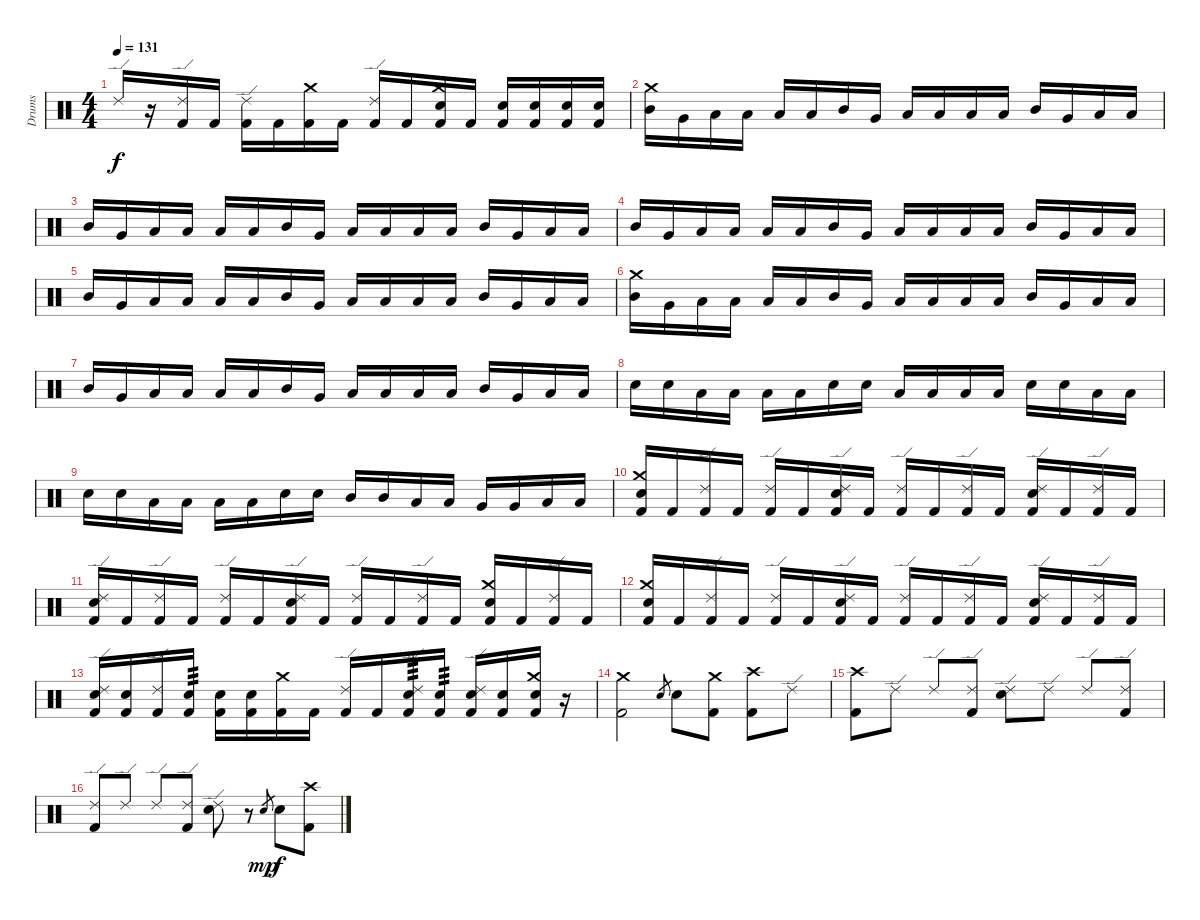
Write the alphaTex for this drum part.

\track ("Drums" "Drums") {instrument percussion}
\staff {score}
\articulation defaults
\ts (4 4)
\tempo 131
\clef neutral
\ks c "Ride (edge) 2".16{dy f}
r.16 ("Ride (edge) 2" "Kick (hit) 2").16 "Kick (hit) 2".16 ("Ride (edge) 2" "Kick (hit) 2").16 "Kick (hit) 2".16 ("Crash medium (hit)" "Kick (hit) 2").16 "Kick (hit) 2".16 ("Ride (edge) 2" "Kick (hit) 2").16 "Kick (hit) 2".16 ("Crash medium (hit)" "Electric Snare (hit)" "Kick (hit) 2").16 "Kick (hit) 2".16 ("Electric Snare (hit)" "Kick (hit) 2").16 ("Electric Snare (hit)" "Kick (hit) 2").16 ("Electric Snare (hit)" "Kick (hit) 2").16 ("Electric Snare (hit)" "Kick (hit) 2").16 |
("Crash medium (hit)" "Mid Tom (hit)").16 "Very Low Tom (hit)".16 "Low Floor Tom (hit)".16 "Low Floor Tom (hit)".16 "Low Floor Tom (hit)".16 "Low Floor Tom (hit)".16 "Mid Tom (hit)".16 "Very Low Tom (hit)".16 "Low Floor Tom (hit)".16 "Low Floor Tom (hit)".16 "Low Floor Tom (hit)".16 "Low Floor Tom (hit)".16 "Mid Tom (hit)".16 "Very Low Tom (hit)".16 "Low Floor Tom (hit)".16 "Low Floor Tom (hit)".16 |
"Mid Tom (hit)".16 "Very Low Tom (hit)".16 "Low Floor Tom (hit)".16 "Low Floor Tom (hit)".16 "Low Floor Tom (hit)".16 "Low Floor Tom (hit)".16 "Mid Tom (hit)".16 "Very Low Tom (hit)".16 "Low Floor Tom (hit)".16 "Low Floor Tom (hit)".16 "Low Floor Tom (hit)".16 "Low Floor Tom (hit)".16 "Mid Tom (hit)".16 "Very Low Tom (hit)".16 "Low Floor Tom (hit)".16 "Low Floor Tom (hit)".16 |
"Mid Tom (hit)".16 "Very Low Tom (hit)".16 "Low Floor Tom (hit)".16 "Low Floor Tom (hit)".16 "Low Floor Tom (hit)".16 "Low Floor Tom (hit)".16 "Mid Tom (hit)".16 "Very Low Tom (hit)".16 "Low Floor Tom (hit)".16 "Low Floor Tom (hit)".16 "Low Floor Tom (hit)".16 "Low Floor Tom (hit)".16 "Mid Tom (hit)".16 "Very Low Tom (hit)".16 "Low Floor Tom (hit)".16 "Low Floor Tom (hit)".16 |
"Mid Tom (hit)".16 "Very Low Tom (hit)".16 "Low Floor Tom (hit)".16 "Low Floor Tom (hit)".16 "Low Floor Tom (hit)".16 "Low Floor Tom (hit)".16 "Mid Tom (hit)".16 "Very Low Tom (hit)".16 "Low Floor Tom (hit)".16 "Low Floor Tom (hit)".16 "Low Floor Tom (hit)".16 "Low Floor Tom (hit)".16 "Mid Tom (hit)".16 "Very Low Tom (hit)".16 "Low Floor Tom (hit)".16 "Low Floor Tom (hit)".16 |
("Crash medium (hit)" "Mid Tom (hit)").16 "Very Low Tom (hit)".16 "Low Floor Tom (hit)".16 "Low Floor Tom (hit)".16 "Low Floor Tom (hit)".16 "Low Floor Tom (hit)".16 "Mid Tom (hit)".16 "Very Low Tom (hit)".16 "Low Floor Tom (hit)".16 "Low Floor Tom (hit)".16 "Low Floor Tom (hit)".16 "Low Floor Tom (hit)".16 "Mid Tom (hit)".16 "Very Low Tom (hit)".16 "Low Floor Tom (hit)".16 "Low Floor Tom (hit)".16 |
"Mid Tom (hit)".16 "Very Low Tom (hit)".16 "Low Floor Tom (hit)".16 "Low Floor Tom (hit)".16 "Low Floor Tom (hit)".16 "Low Floor Tom (hit)".16 "Mid Tom (hit)".16 "Very Low Tom (hit)".16 "Low Floor Tom (hit)".16 "Low Floor Tom (hit)".16 "Low Floor Tom (hit)".16 "Low Floor Tom (hit)".16 "Mid Tom (hit)".16 "Very Low Tom (hit)".16 "Low Floor Tom (hit)".16 "Low Floor Tom (hit)".16 |
"Electric Snare (hit)".16 "Electric Snare (hit)".16 "Low Floor Tom (hit)".16 "Low Floor Tom (hit)".16 "Low Floor Tom (hit)".16 "Low Floor Tom (hit)".16 "Electric Snare (hit)".16 "Electric Snare (hit)".16 "Low Floor Tom (hit)".16 "Low Floor Tom (hit)".16 "Low Floor Tom (hit)".16 "Low Floor Tom (hit)".16 "Electric Snare (hit)".16 "Electric Snare (hit)".16 "Low Floor Tom (hit)".16 "Low Floor Tom (hit)".16 |
"Electric Snare (hit)".16 "Electric Snare (hit)".16 "Low Floor Tom (hit)".16 "Low Floor Tom (hit)".16 "Low Floor Tom (hit)".16 "Low Floor Tom (hit)".16 "Electric Snare (hit)".16 "Electric Snare (hit)".16 "Mid Tom (hit)".16 "Mid Tom (hit)".16 "Low Tom (hit)".16 "Low Tom (hit)".16 "Very Low Tom (hit)".16 "Very Low Tom (hit)".16 "Low Floor Tom (hit)".16 "Low Floor Tom (hit)".16 |
("Crash medium (hit)" "Electric Snare (hit)" "Kick (hit) 2").16 "Kick (hit) 2".16 ("Ride (edge) 2" "Kick (hit) 2").16 "Kick (hit) 2".16 ("Ride (edge) 2" "Kick (hit) 2").16 "Kick (hit) 2".16 ("Ride (edge) 2" "Electric Snare (hit)" "Kick (hit) 2").16 "Kick (hit) 2".16 ("Ride (edge) 2" "Kick (hit) 2").16 "Kick (hit) 2".16 ("Ride (edge) 2" "Kick (hit) 2").16 "Kick (hit) 2".16 ("Ride (edge) 2" "Electric Snare (hit)" "Kick (hit) 2").16 "Kick (hit) 2".16 ("Ride (edge) 2" "Kick (hit) 2").16 "Kick (hit) 2".16 |
("Ride (edge) 2" "Electric Snare (hit)" "Kick (hit) 2").16 "Kick (hit) 2".16 ("Ride (edge) 2" "Kick (hit) 2").16 "Kick (hit) 2".16 ("Ride (edge) 2" "Kick (hit) 2").16 "Kick (hit) 2".16 ("Ride (edge) 2" "Electric Snare (hit)" "Kick (hit) 2").16 "Kick (hit) 2".16 ("Ride (edge) 2" "Kick (hit) 2").16 "Kick (hit) 2".16 ("Ride (edge) 2" "Kick (hit) 2").16 "Kick (hit) 2".16 ("Crash medium (hit)" "Electric Snare (hit)" "Kick (hit) 2").16 "Kick (hit) 2".16 ("Ride (edge) 2" "Kick (hit) 2").16 "Kick (hit) 2".16 |
("Crash medium (hit)" "Electric Snare (hit)" "Kick (hit) 2").16 "Kick (hit) 2".16 ("Ride (edge) 2" "Kick (hit) 2").16 "Kick (hit) 2".16 ("Ride (edge) 2" "Kick (hit) 2").16 "Kick (hit) 2".16 ("Ride (edge) 2" "Electric Snare (hit)" "Kick (hit) 2").16 "Kick (hit) 2".16 ("Ride (edge) 2" "Kick (hit) 2").16 "Kick (hit) 2".16 ("Ride (edge) 2" "Kick (hit) 2").16 "Kick (hit) 2".16 ("Ride (edge) 2" "Electric Snare (hit)" "Kick (hit) 2").16 "Kick (hit) 2".16 ("Ride (edge) 2" "Kick (hit) 2").16 "Kick (hit) 2".16 |
("Ride (edge) 2" "Electric Snare (hit)" "Kick (hit) 2").16 ("Electric Snare (hit)" "Kick (hit) 2").16 ("Ride (edge) 2" "Kick (hit) 2").16 ("Electric Snare (hit)" "Kick (hit) 2").16{tp 3} ("Electric Snare (hit)" "Kick (hit) 2").16 ("Electric Snare (hit)" "Kick (hit) 2").16 ("Crash medium (hit)" "Kick (hit) 2").16 "Kick (hit) 2".16 ("Ride (edge) 2" "Kick (hit) 2").16 "Kick (hit) 2".16 ("Ride (edge) 2" "Electric Snare (hit)" "Kick (hit) 2").16{tp 3} ("Electric Snare (hit)" "Kick (hit) 2").16{tp 3} ("Ride (edge) 2" "Electric Snare (hit)" "Kick (hit) 2").16 ("Electric Snare (hit)" "Kick (hit) 2").16 ("Crash medium (hit)" "Electric Snare (hit)" "Kick (hit) 2").16 r.16 |
("Crash medium (hit)" "Kick (hit) 2").2 "Electric Snare (hit)".8{gr} "Electric Snare (hit)".8 ("Crash medium (hit)" "Kick (hit) 2").8 ("Crash high (hit)" "Kick (hit) 2").8 "Ride (edge) 2".8 |
("Crash high (hit)" "Kick (hit) 2").8 "Ride (edge) 2".8 "Ride (edge) 2".8 ("Ride (edge) 2" "Kick (hit) 2").8 ("Ride (edge) 2" "Electric Snare (hit)").8 "Ride (edge) 2".8 "Ride (edge) 2".8 ("Ride (edge) 2" "Kick (hit) 2").8 |
("Ride (edge) 2" "Kick (hit) 2").8 "Ride (edge) 2".8 "Ride (edge) 2".8 ("Ride (edge) 2" "Kick (hit) 2").8 ("Ride (edge) 2" "Electric Snare (hit)").8 r.8 "Electric Snare (hit)".8{gr dy mp} "Electric Snare (hit)".8{dy f} ("Crash high (hit)" "Kick (hit) 2").8
